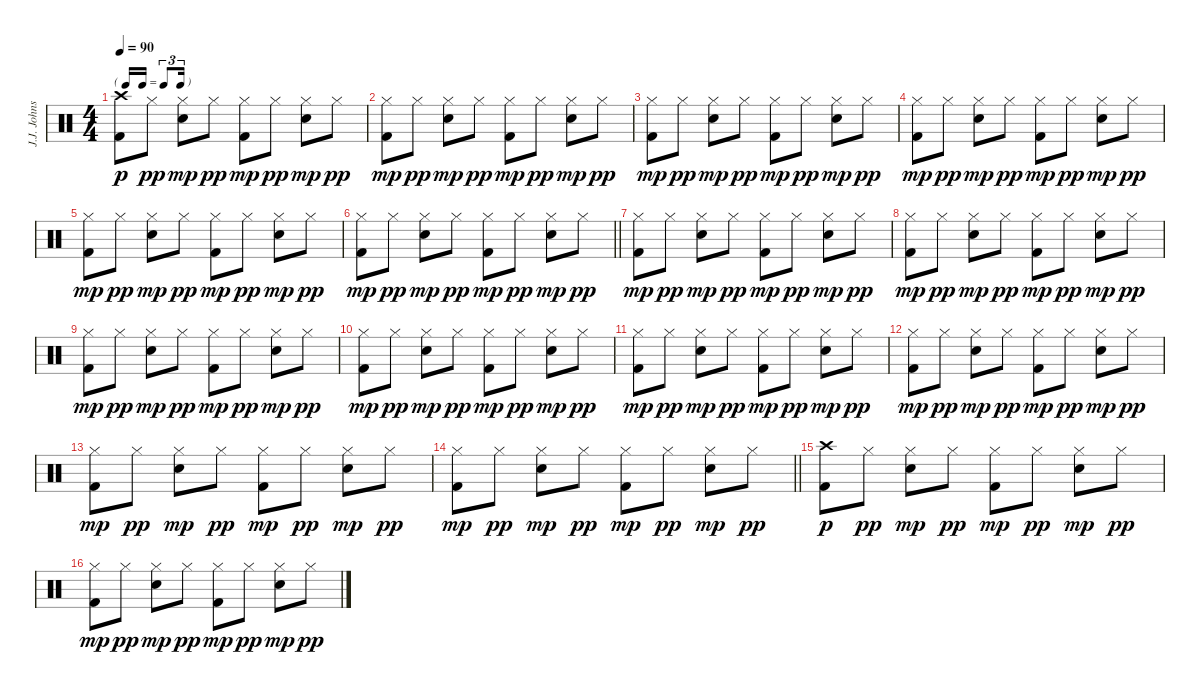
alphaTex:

\track ("J.J. Johnson" "J.J. Johns") {instrument percussion}
\staff {score}
\articulation defaults
\ts (4 4)
\tf triplet16th
\tempo 90
\clef neutral
\ks c
("Crash high (hit)" "Kick (hit) 2").8{dy p} "Hi-Hat (closed)".8{dy pp} ("Hi-Hat (closed)" "Electric Snare (hit)").8{dy mp} "Hi-Hat (closed)".8{dy pp} ("Hi-Hat (closed)" "Kick (hit) 2").8{dy mp} "Hi-Hat (closed)".8{dy pp} ("Hi-Hat (closed)" "Electric Snare (hit)").8{dy mp} "Hi-Hat (closed)".8{dy pp} |
("Hi-Hat (closed)" "Kick (hit) 2").8{dy mp} "Hi-Hat (closed)".8{dy pp} ("Hi-Hat (closed)" "Electric Snare (hit)").8{dy mp} "Hi-Hat (closed)".8{dy pp} ("Hi-Hat (closed)" "Kick (hit) 2").8{dy mp} "Hi-Hat (closed)".8{dy pp} ("Hi-Hat (closed)" "Electric Snare (hit)").8{dy mp} "Hi-Hat (closed)".8{dy pp} |
("Hi-Hat (closed)" "Kick (hit) 2").8{dy mp} "Hi-Hat (closed)".8{dy pp} ("Hi-Hat (closed)" "Electric Snare (hit)").8{dy mp} "Hi-Hat (closed)".8{dy pp} ("Hi-Hat (closed)" "Kick (hit) 2").8{dy mp} "Hi-Hat (closed)".8{dy pp} ("Hi-Hat (closed)" "Electric Snare (hit)").8{dy mp} "Hi-Hat (closed)".8{dy pp} |
("Hi-Hat (closed)" "Kick (hit) 2").8{dy mp} "Hi-Hat (closed)".8{dy pp} ("Hi-Hat (closed)" "Electric Snare (hit)").8{dy mp} "Hi-Hat (closed)".8{dy pp} ("Hi-Hat (closed)" "Kick (hit) 2").8{dy mp} "Hi-Hat (closed)".8{dy pp} ("Hi-Hat (closed)" "Electric Snare (hit)").8{dy mp} "Hi-Hat (closed)".8{dy pp} |
("Hi-Hat (closed)" "Kick (hit) 2").8{dy mp} "Hi-Hat (closed)".8{dy pp} ("Hi-Hat (closed)" "Electric Snare (hit)").8{dy mp} "Hi-Hat (closed)".8{dy pp} ("Hi-Hat (closed)" "Kick (hit) 2").8{dy mp} "Hi-Hat (closed)".8{dy pp} ("Hi-Hat (closed)" "Electric Snare (hit)").8{dy mp} "Hi-Hat (closed)".8{dy pp} |
\barLineRight lightlight
("Hi-Hat (closed)" "Kick (hit) 2").8{dy mp} "Hi-Hat (closed)".8{dy pp} ("Hi-Hat (closed)" "Electric Snare (hit)").8{dy mp} "Hi-Hat (closed)".8{dy pp} ("Hi-Hat (closed)" "Kick (hit) 2").8{dy mp} "Hi-Hat (closed)".8{dy pp} ("Hi-Hat (closed)" "Electric Snare (hit)").8{dy mp} "Hi-Hat (closed)".8{dy pp} |
("Hi-Hat (closed)" "Kick (hit) 2").8{dy mp} "Hi-Hat (closed)".8{dy pp} ("Hi-Hat (closed)" "Electric Snare (hit)").8{dy mp} "Hi-Hat (closed)".8{dy pp} ("Hi-Hat (closed)" "Kick (hit) 2").8{dy mp} "Hi-Hat (closed)".8{dy pp} ("Hi-Hat (closed)" "Electric Snare (hit)").8{dy mp} "Hi-Hat (closed)".8{dy pp} |
("Hi-Hat (closed)" "Kick (hit) 2").8{dy mp} "Hi-Hat (closed)".8{dy pp} ("Hi-Hat (closed)" "Electric Snare (hit)").8{dy mp} "Hi-Hat (closed)".8{dy pp} ("Hi-Hat (closed)" "Kick (hit) 2").8{dy mp} "Hi-Hat (closed)".8{dy pp} ("Hi-Hat (closed)" "Electric Snare (hit)").8{dy mp} "Hi-Hat (closed)".8{dy pp} |
("Hi-Hat (closed)" "Kick (hit) 2").8{dy mp} "Hi-Hat (closed)".8{dy pp} ("Hi-Hat (closed)" "Electric Snare (hit)").8{dy mp} "Hi-Hat (closed)".8{dy pp} ("Hi-Hat (closed)" "Kick (hit) 2").8{dy mp} "Hi-Hat (closed)".8{dy pp} ("Hi-Hat (closed)" "Electric Snare (hit)").8{dy mp} "Hi-Hat (closed)".8{dy pp} |
("Hi-Hat (closed)" "Kick (hit) 2").8{dy mp} "Hi-Hat (closed)".8{dy pp} ("Hi-Hat (closed)" "Electric Snare (hit)").8{dy mp} "Hi-Hat (closed)".8{dy pp} ("Hi-Hat (closed)" "Kick (hit) 2").8{dy mp} "Hi-Hat (closed)".8{dy pp} ("Hi-Hat (closed)" "Electric Snare (hit)").8{dy mp} "Hi-Hat (closed)".8{dy pp} |
("Hi-Hat (closed)" "Kick (hit) 2").8{dy mp} "Hi-Hat (closed)".8{dy pp} ("Hi-Hat (closed)" "Electric Snare (hit)").8{dy mp} "Hi-Hat (closed)".8{dy pp} ("Hi-Hat (closed)" "Kick (hit) 2").8{dy mp} "Hi-Hat (closed)".8{dy pp} ("Hi-Hat (closed)" "Electric Snare (hit)").8{dy mp} "Hi-Hat (closed)".8{dy pp} |
("Hi-Hat (closed)" "Kick (hit) 2").8{dy mp} "Hi-Hat (closed)".8{dy pp} ("Hi-Hat (closed)" "Electric Snare (hit)").8{dy mp} "Hi-Hat (closed)".8{dy pp} ("Hi-Hat (closed)" "Kick (hit) 2").8{dy mp} "Hi-Hat (closed)".8{dy pp} ("Hi-Hat (closed)" "Electric Snare (hit)").8{dy mp} "Hi-Hat (closed)".8{dy pp} |
("Hi-Hat (closed)" "Kick (hit) 2").8{dy mp} "Hi-Hat (closed)".8{dy pp} ("Hi-Hat (closed)" "Electric Snare (hit)").8{dy mp} "Hi-Hat (closed)".8{dy pp} ("Hi-Hat (closed)" "Kick (hit) 2").8{dy mp} "Hi-Hat (closed)".8{dy pp} ("Hi-Hat (closed)" "Electric Snare (hit)").8{dy mp} "Hi-Hat (closed)".8{dy pp} |
\barLineRight lightlight
("Hi-Hat (closed)" "Kick (hit) 2").8{dy mp} "Hi-Hat (closed)".8{dy pp} ("Hi-Hat (closed)" "Electric Snare (hit)").8{dy mp} "Hi-Hat (closed)".8{dy pp} ("Hi-Hat (closed)" "Kick (hit) 2").8{dy mp} "Hi-Hat (closed)".8{dy pp} ("Hi-Hat (closed)" "Electric Snare (hit)").8{dy mp} "Hi-Hat (closed)".8{dy pp} |
("Crash high (hit)" "Kick (hit) 2").8{dy p} "Hi-Hat (closed)".8{dy pp} ("Hi-Hat (closed)" "Electric Snare (hit)").8{dy mp} "Hi-Hat (closed)".8{dy pp} ("Hi-Hat (closed)" "Kick (hit) 2").8{dy mp} "Hi-Hat (closed)".8{dy pp} ("Hi-Hat (closed)" "Electric Snare (hit)").8{dy mp} "Hi-Hat (closed)".8{dy pp} |
("Hi-Hat (closed)" "Kick (hit) 2").8{dy mp} "Hi-Hat (closed)".8{dy pp} ("Hi-Hat (closed)" "Electric Snare (hit)").8{dy mp} "Hi-Hat (closed)".8{dy pp} ("Hi-Hat (closed)" "Kick (hit) 2").8{dy mp} "Hi-Hat (closed)".8{dy pp} ("Hi-Hat (closed)" "Electric Snare (hit)").8{dy mp} "Hi-Hat (closed)".8{dy pp}
